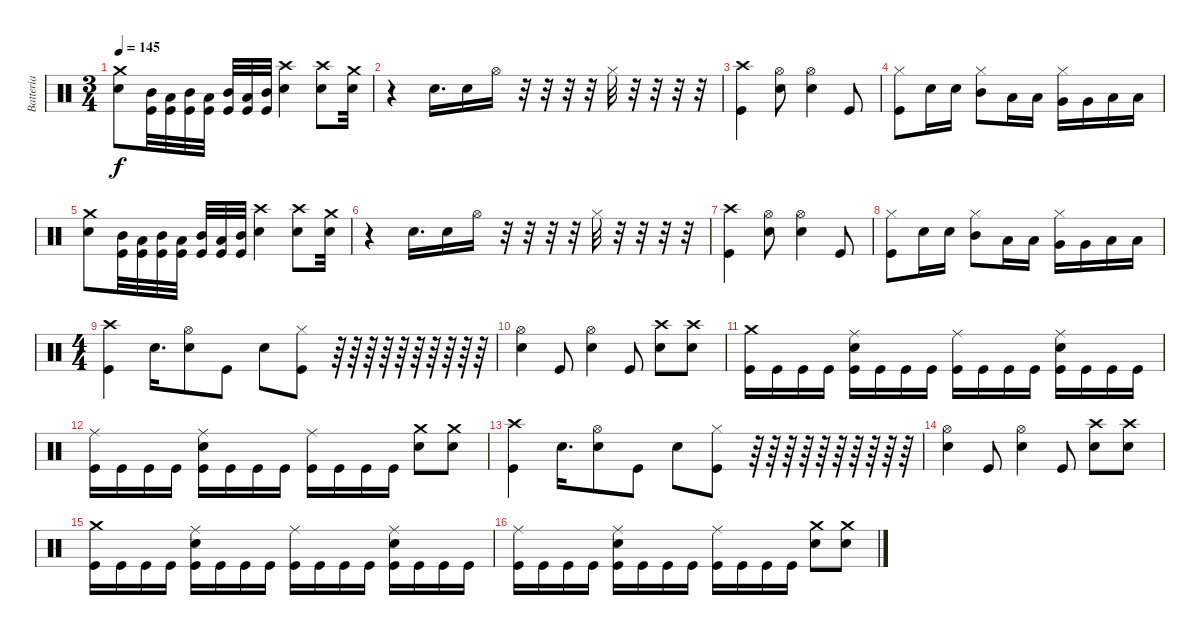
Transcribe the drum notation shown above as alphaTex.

\track ("Batteria" "Batteria") {instrument percussion}
\staff {score}
\articulation defaults
\ts (3 4)
\tempo 145
\clef neutral
\ks c
("Crash medium (hit)" "Electric Snare (hit)").8{dy f} ("Mid Tom (hit)" "Kick (hit)").32 ("Low Tom (hit)" "Kick (hit)").32 ("Mid Tom (hit)" "Kick (hit)").32 ("Low Tom (hit)" "Kick (hit)").32 ("Mid Tom (hit)" "Kick (hit)").32 ("Low Tom (hit)" "Kick (hit)").32 ("Mid Tom (hit)" "Kick (hit)").32 ("Crash high (hit)" "Electric Snare (hit)").4 ("Crash high (hit)" "Electric Snare (hit)").8 ("Crash medium (hit)" "Electric Snare (hit)").32 |
r.4 "Electric Snare (hit)".16{d} "Electric Snare (hit)".16 "Hi-Hat (open)".16 r.32 r.32 r.32 r.32 "Hi-Hat (closed)".32 r.32 r.32 r.32 r.32 |
("Crash high (hit)" "Kick (hit)").4 ("Hi-Hat (open)" "Electric Snare (hit)").8 ("Hi-Hat (open)" "Electric Snare (hit)").4 "Kick (hit)".8 |
("Hi-Hat (closed)" "Kick (hit)").8 "Electric Snare (hit)".16 "Electric Snare (hit)".16 ("Hi-Hat (closed)" "Mid Tom (hit)").8 "Low Tom (hit)".16 "Low Tom (hit)".16 ("Hi-Hat (closed)" "Very Low Tom (hit)").16 "Very Low Tom (hit)".16 "Low Floor Tom (hit)".16 "Low Floor Tom (hit)".16 |
("Crash medium (hit)" "Electric Snare (hit)").8 ("Mid Tom (hit)" "Kick (hit)").32 ("Low Tom (hit)" "Kick (hit)").32 ("Mid Tom (hit)" "Kick (hit)").32 ("Low Tom (hit)" "Kick (hit)").32 ("Mid Tom (hit)" "Kick (hit)").32 ("Low Tom (hit)" "Kick (hit)").32 ("Mid Tom (hit)" "Kick (hit)").32 ("Crash high (hit)" "Electric Snare (hit)").4 ("Crash high (hit)" "Electric Snare (hit)").8 ("Crash medium (hit)" "Electric Snare (hit)").32 |
r.4 "Electric Snare (hit)".16{d} "Electric Snare (hit)".16 "Hi-Hat (open)".16 r.32 r.32 r.32 r.32 "Hi-Hat (closed)".32 r.32 r.32 r.32 r.32 |
("Crash high (hit)" "Kick (hit)").4 ("Hi-Hat (open)" "Electric Snare (hit)").8 ("Hi-Hat (open)" "Electric Snare (hit)").4 "Kick (hit)".8 |
("Hi-Hat (closed)" "Kick (hit)").8 "Electric Snare (hit)".16 "Electric Snare (hit)".16 ("Hi-Hat (closed)" "Mid Tom (hit)").8 "Low Tom (hit)".16 "Low Tom (hit)".16 ("Hi-Hat (closed)" "Very Low Tom (hit)").16 "Very Low Tom (hit)".16 "Low Floor Tom (hit)".16 "Low Floor Tom (hit)".16 |
\ts (4 4)
("Crash high (hit)" "Kick (hit)").4 "Electric Snare (hit)".16{d} ("Hi-Hat (open)" "Electric Snare (hit)").8 "Kick (hit)".8 "Electric Snare (hit)".8 ("Hi-Hat (closed)" "Kick (hit)").8 r.64 r.64 r.64 r.64 r.64 r.64 r.64 r.64 r.64 r.64 |
("Hi-Hat (open)" "Electric Snare (hit)").4 "Kick (hit)".8 ("Hi-Hat (open)" "Electric Snare (hit)").4 "Kick (hit)".8 ("Crash high (hit)" "Electric Snare (hit)").8 ("Crash high (hit)" "Electric Snare (hit)").8 |
("Crash medium (hit)" "Kick (hit)").16 "Kick (hit)".16 "Kick (hit)".16 "Kick (hit)".16 ("Ride (middle)" "Electric Snare (hit)" "Kick (hit)").16 "Kick (hit)".16 "Kick (hit)".16 "Kick (hit)".16 ("Ride (middle)" "Kick (hit)").16 "Kick (hit)".16 "Kick (hit)".16 "Kick (hit)".16 ("Ride (middle)" "Electric Snare (hit)" "Kick (hit)").16 "Kick (hit)".16 "Kick (hit)".16 "Kick (hit)".16 |
("Ride (middle)" "Kick (hit)").16 "Kick (hit)".16 "Kick (hit)".16 "Kick (hit)".16 ("Ride (middle)" "Electric Snare (hit)" "Kick (hit)").16 "Kick (hit)".16 "Kick (hit)".16 "Kick (hit)".16 ("Ride (middle)" "Kick (hit)").16 "Kick (hit)".16 "Kick (hit)".16 "Kick (hit)".16 ("Crash medium (hit)" "Electric Snare (hit)").8 ("Crash medium (hit)" "Electric Snare (hit)").8 |
("Crash high (hit)" "Kick (hit)").4 "Electric Snare (hit)".16{d} ("Hi-Hat (open)" "Electric Snare (hit)").8 "Kick (hit)".8 "Electric Snare (hit)".8 ("Hi-Hat (closed)" "Kick (hit)").8 r.64 r.64 r.64 r.64 r.64 r.64 r.64 r.64 r.64 r.64 |
("Hi-Hat (open)" "Electric Snare (hit)").4 "Kick (hit)".8 ("Hi-Hat (open)" "Electric Snare (hit)").4 "Kick (hit)".8 ("Crash high (hit)" "Electric Snare (hit)").8 ("Crash high (hit)" "Electric Snare (hit)").8 |
("Crash medium (hit)" "Kick (hit)").16 "Kick (hit)".16 "Kick (hit)".16 "Kick (hit)".16 ("Ride (middle)" "Electric Snare (hit)" "Kick (hit)").16 "Kick (hit)".16 "Kick (hit)".16 "Kick (hit)".16 ("Ride (middle)" "Kick (hit)").16 "Kick (hit)".16 "Kick (hit)".16 "Kick (hit)".16 ("Ride (middle)" "Electric Snare (hit)" "Kick (hit)").16 "Kick (hit)".16 "Kick (hit)".16 "Kick (hit)".16 |
("Ride (middle)" "Kick (hit)").16 "Kick (hit)".16 "Kick (hit)".16 "Kick (hit)".16 ("Ride (middle)" "Electric Snare (hit)" "Kick (hit)").16 "Kick (hit)".16 "Kick (hit)".16 "Kick (hit)".16 ("Ride (middle)" "Kick (hit)").16 "Kick (hit)".16 "Kick (hit)".16 "Kick (hit)".16 ("Crash medium (hit)" "Electric Snare (hit)").8 ("Crash medium (hit)" "Electric Snare (hit)").8
